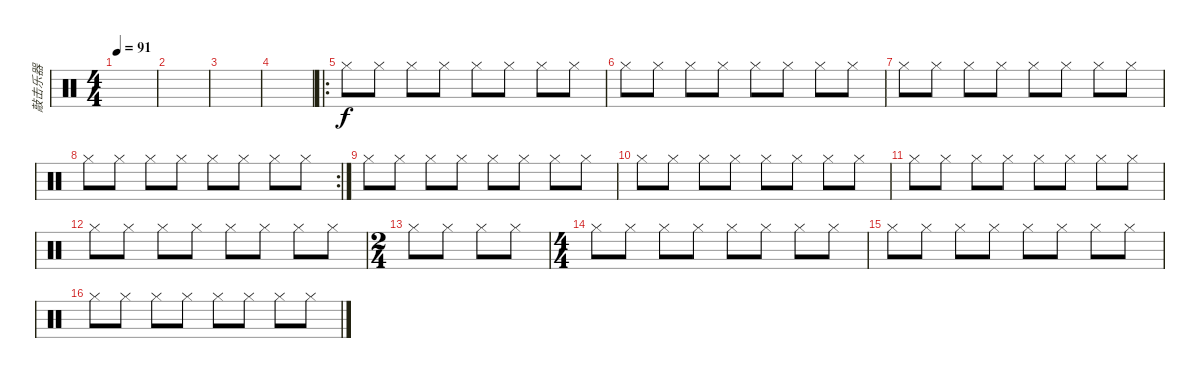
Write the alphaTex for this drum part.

\track ("敲击乐器" "敲击乐器") {instrument percussion}
\staff {score}
\articulation defaults
\ts (4 4)
\tempo 91
\clef neutral
\ks c
|
|
|
|
\ro "Hi-Hat (closed)".8 "Hi-Hat (closed)".8 "Hi-Hat (closed)".8 "Hi-Hat (closed)".8 "Hi-Hat (closed)".8 "Hi-Hat (closed)".8 "Hi-Hat (closed)".8 "Hi-Hat (closed)".8
|
"Hi-Hat (closed)".8 "Hi-Hat (closed)".8 "Hi-Hat (closed)".8 "Hi-Hat (closed)".8 "Hi-Hat (closed)".8 "Hi-Hat (closed)".8 "Hi-Hat (closed)".8 "Hi-Hat (closed)".8 |
"Hi-Hat (closed)".8 "Hi-Hat (closed)".8 "Hi-Hat (closed)".8 "Hi-Hat (closed)".8 "Hi-Hat (closed)".8 "Hi-Hat (closed)".8 "Hi-Hat (closed)".8 "Hi-Hat (closed)".8 |
\rc 2 "Hi-Hat (closed)".8 "Hi-Hat (closed)".8 "Hi-Hat (closed)".8 "Hi-Hat (closed)".8 "Hi-Hat (closed)".8 "Hi-Hat (closed)".8 "Hi-Hat (closed)".8 "Hi-Hat (closed)".8
|
"Hi-Hat (closed)".8 "Hi-Hat (closed)".8 "Hi-Hat (closed)".8 "Hi-Hat (closed)".8 "Hi-Hat (closed)".8 "Hi-Hat (closed)".8 "Hi-Hat (closed)".8 "Hi-Hat (closed)".8 |
"Hi-Hat (closed)".8 "Hi-Hat (closed)".8 "Hi-Hat (closed)".8 "Hi-Hat (closed)".8 "Hi-Hat (closed)".8 "Hi-Hat (closed)".8 "Hi-Hat (closed)".8 "Hi-Hat (closed)".8 |
"Hi-Hat (closed)".8 "Hi-Hat (closed)".8 "Hi-Hat (closed)".8 "Hi-Hat (closed)".8 "Hi-Hat (closed)".8 "Hi-Hat (closed)".8 "Hi-Hat (closed)".8 "Hi-Hat (closed)".8 |
"Hi-Hat (closed)".8 "Hi-Hat (closed)".8 "Hi-Hat (closed)".8 "Hi-Hat (closed)".8 "Hi-Hat (closed)".8 "Hi-Hat (closed)".8 "Hi-Hat (closed)".8 "Hi-Hat (closed)".8 |
\ts (2 4)
"Hi-Hat (closed)".8 "Hi-Hat (closed)".8 "Hi-Hat (closed)".8 "Hi-Hat (closed)".8 |
\ts (4 4)
"Hi-Hat (closed)".8 "Hi-Hat (closed)".8 "Hi-Hat (closed)".8 "Hi-Hat (closed)".8 "Hi-Hat (closed)".8 "Hi-Hat (closed)".8 "Hi-Hat (closed)".8 "Hi-Hat (closed)".8 |
"Hi-Hat (closed)".8 "Hi-Hat (closed)".8 "Hi-Hat (closed)".8 "Hi-Hat (closed)".8 "Hi-Hat (closed)".8 "Hi-Hat (closed)".8 "Hi-Hat (closed)".8 "Hi-Hat (closed)".8 |
"Hi-Hat (closed)".8 "Hi-Hat (closed)".8 "Hi-Hat (closed)".8 "Hi-Hat (closed)".8 "Hi-Hat (closed)".8 "Hi-Hat (closed)".8 "Hi-Hat (closed)".8 "Hi-Hat (closed)".8
